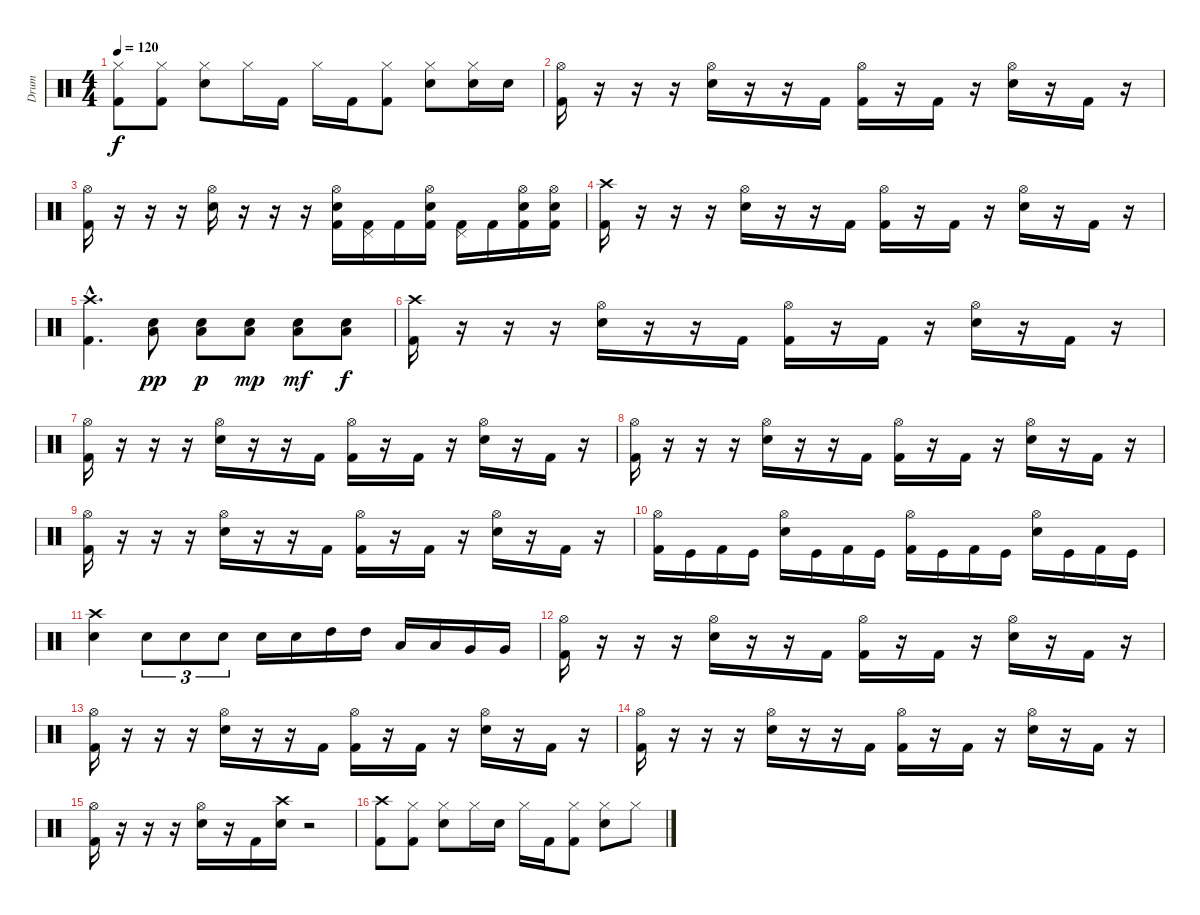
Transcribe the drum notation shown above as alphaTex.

\track ("Drum" "Drum") {instrument percussion}
\staff {score}
\articulation defaults
\ts (4 4)
\tempo 120
\clef neutral
\ks c
("Hi-Hat (closed)" "Kick (hit) 2").8{dy f} ("Hi-Hat (closed)" "Kick (hit) 2").8 ("Hi-Hat (closed)" "Metronome (bell)").8 "Hi-Hat (closed)".16 "Kick (hit) 2".16 "Hi-Hat (closed)".16 "Kick (hit) 2".16 ("Hi-Hat (closed)" "Kick (hit) 2").8 ("Hi-Hat (closed)" "Metronome (bell)").8 ("Hi-Hat (closed)" "Electric Snare (hit)").16 "Electric Snare (hit)".16 |
("Hi-Hat (open)" "Kick (hit) 2").16 r.16 r.16 r.16 ("Hi-Hat (open)" "Electric Snare (hit)").16 r.16 r.16 "Kick (hit) 2".16 ("Hi-Hat (open)" "Kick (hit) 2").16 r.16 "Kick (hit) 2".16 r.16 ("Hi-Hat (open)" "Electric Snare (hit)").16 r.16 "Kick (hit) 2".16 r.16 |
("Hi-Hat (open)" "Kick (hit) 2").16 r.16 r.16 r.16 ("Hi-Hat (open)" "Electric Snare (hit)").16 r.16 r.16 r.16 ("Electric Snare (hit)" "Kick (hit) 2" "Hi-Hat (open)").16 ("Kick (hit) 2" "Pedal Hi-Hat (hit)").16 "Kick (hit) 2".16 ("Electric Snare (hit)" "Kick (hit) 2" "Hi-Hat (open)").16 ("Kick (hit) 2" "Pedal Hi-Hat (hit)").16 "Kick (hit) 2".16 ("Electric Snare (hit)" "Kick (hit) 2" "Hi-Hat (open)").16 ("Electric Snare (hit)" "Kick (hit) 2" "Hi-Hat (open)").16 |
("Crash high (hit)" "Kick (hit) 2").16 r.16 r.16 r.16 ("Hi-Hat (open)" "Electric Snare (hit)").16 r.16 r.16 "Kick (hit) 2".16 ("Hi-Hat (open)" "Kick (hit) 2").16 r.16 "Kick (hit) 2".16 r.16 ("Hi-Hat (open)" "Electric Snare (hit)").16 r.16 "Kick (hit) 2".16 r.16 |
("Crash high (hit)"{hac} "Kick (hit) 2"{hac}).4{d} ("Electric Snare (hit)" "Low Floor Tom (hit)").8{dy pp} ("Electric Snare (hit)" "Low Floor Tom (hit)").8{dy p} ("Electric Snare (hit)" "Low Floor Tom (hit)").8{dy mp} ("Electric Snare (hit)" "Low Floor Tom (hit)").8{dy mf} ("Electric Snare (hit)" "Low Floor Tom (hit)").8{dy f} |
("Crash high (hit)" "Kick (hit) 2").16 r.16 r.16 r.16 ("Hi-Hat (open)" "Electric Snare (hit)").16 r.16 r.16 "Kick (hit) 2".16 ("Hi-Hat (open)" "Kick (hit) 2").16 r.16 "Kick (hit) 2".16 r.16 ("Hi-Hat (open)" "Electric Snare (hit)").16 r.16 "Kick (hit) 2".16 r.16 |
("Hi-Hat (open)" "Kick (hit) 2").16 r.16 r.16 r.16 ("Hi-Hat (open)" "Electric Snare (hit)").16 r.16 r.16 "Kick (hit) 2".16 ("Hi-Hat (open)" "Kick (hit) 2").16 r.16 "Kick (hit) 2".16 r.16 ("Hi-Hat (open)" "Electric Snare (hit)").16 r.16 "Kick (hit) 2".16 r.16 |
("Hi-Hat (open)" "Kick (hit) 2").16 r.16 r.16 r.16 ("Hi-Hat (open)" "Electric Snare (hit)").16 r.16 r.16 "Kick (hit) 2".16 ("Hi-Hat (open)" "Kick (hit) 2").16 r.16 "Kick (hit) 2".16 r.16 ("Hi-Hat (open)" "Electric Snare (hit)").16 r.16 "Kick (hit) 2".16 r.16 |
("Hi-Hat (open)" "Kick (hit) 2").16 r.16 r.16 r.16 ("Hi-Hat (open)" "Electric Snare (hit)").16 r.16 r.16 "Kick (hit) 2".16 ("Hi-Hat (open)" "Kick (hit) 2").16 r.16 "Kick (hit) 2".16 r.16 ("Hi-Hat (open)" "Electric Snare (hit)").16 r.16 "Kick (hit) 2".16 r.16 |
("Hi-Hat (open)" "Kick (hit) 2").16 "Kick (hit)".16 "Kick (hit) 2".16 "Kick (hit)".16 ("Hi-Hat (open)" "Electric Snare (hit)").16 "Kick (hit)".16 "Kick (hit) 2".16 "Kick (hit)".16 ("Hi-Hat (open)" "Kick (hit) 2").16 "Kick (hit)".16 "Kick (hit) 2".16 "Kick (hit)".16 ("Hi-Hat (open)" "Electric Snare (hit)").16 "Kick (hit)".16 "Kick (hit) 2".16 "Kick (hit)".16 |
("Crash high (hit)" "Electric Snare (hit)").4 "Electric Snare (hit)".8{tu (3 2)} "Electric Snare (hit)".8{tu (3 2)} "Electric Snare (hit)".8{tu (3 2)} "Electric Snare (hit)".16 "Electric Snare (hit)".16 "High Tom (hit)".16 "High Tom (hit)".16 "Low Tom (hit)".16 "Low Tom (hit)".16 "Very Low Tom (hit)".16 "Very Low Tom (hit)".16 |
("Hi-Hat (open)" "Kick (hit) 2").16 r.16 r.16 r.16 ("Hi-Hat (open)" "Electric Snare (hit)").16 r.16 r.16 "Kick (hit) 2".16 ("Hi-Hat (open)" "Kick (hit) 2").16 r.16 "Kick (hit) 2".16 r.16 ("Hi-Hat (open)" "Electric Snare (hit)").16 r.16 "Kick (hit) 2".16 r.16 |
("Hi-Hat (open)" "Kick (hit) 2").16 r.16 r.16 r.16 ("Hi-Hat (open)" "Electric Snare (hit)").16 r.16 r.16 "Kick (hit) 2".16 ("Hi-Hat (open)" "Kick (hit) 2").16 r.16 "Kick (hit) 2".16 r.16 ("Hi-Hat (open)" "Electric Snare (hit)").16 r.16 "Kick (hit) 2".16 r.16 |
("Hi-Hat (open)" "Kick (hit) 2").16 r.16 r.16 r.16 ("Hi-Hat (open)" "Electric Snare (hit)").16 r.16 r.16 "Kick (hit) 2".16 ("Hi-Hat (open)" "Kick (hit) 2").16 r.16 "Kick (hit) 2".16 r.16 ("Hi-Hat (open)" "Electric Snare (hit)").16 r.16 "Kick (hit) 2".16 r.16 |
("Hi-Hat (open)" "Kick (hit) 2").16 r.16 r.16 r.16 ("Hi-Hat (open)" "Electric Snare (hit)").16 r.16 "Kick (hit) 2".16 ("Crash high (hit)" "Metronome (bell)").16 r.2 |
("Crash high (hit)" "Kick (hit) 2").8 ("Hi-Hat (closed)" "Kick (hit) 2").8 ("Hi-Hat (closed)" "Metronome (bell)").8 "Hi-Hat (closed)".16 "Metronome (bell)".16 "Hi-Hat (closed)".16 "Kick (hit) 2".16 ("Hi-Hat (closed)" "Kick (hit) 2").8 ("Hi-Hat (closed)" "Metronome (bell)").8 "Hi-Hat (closed)".8
